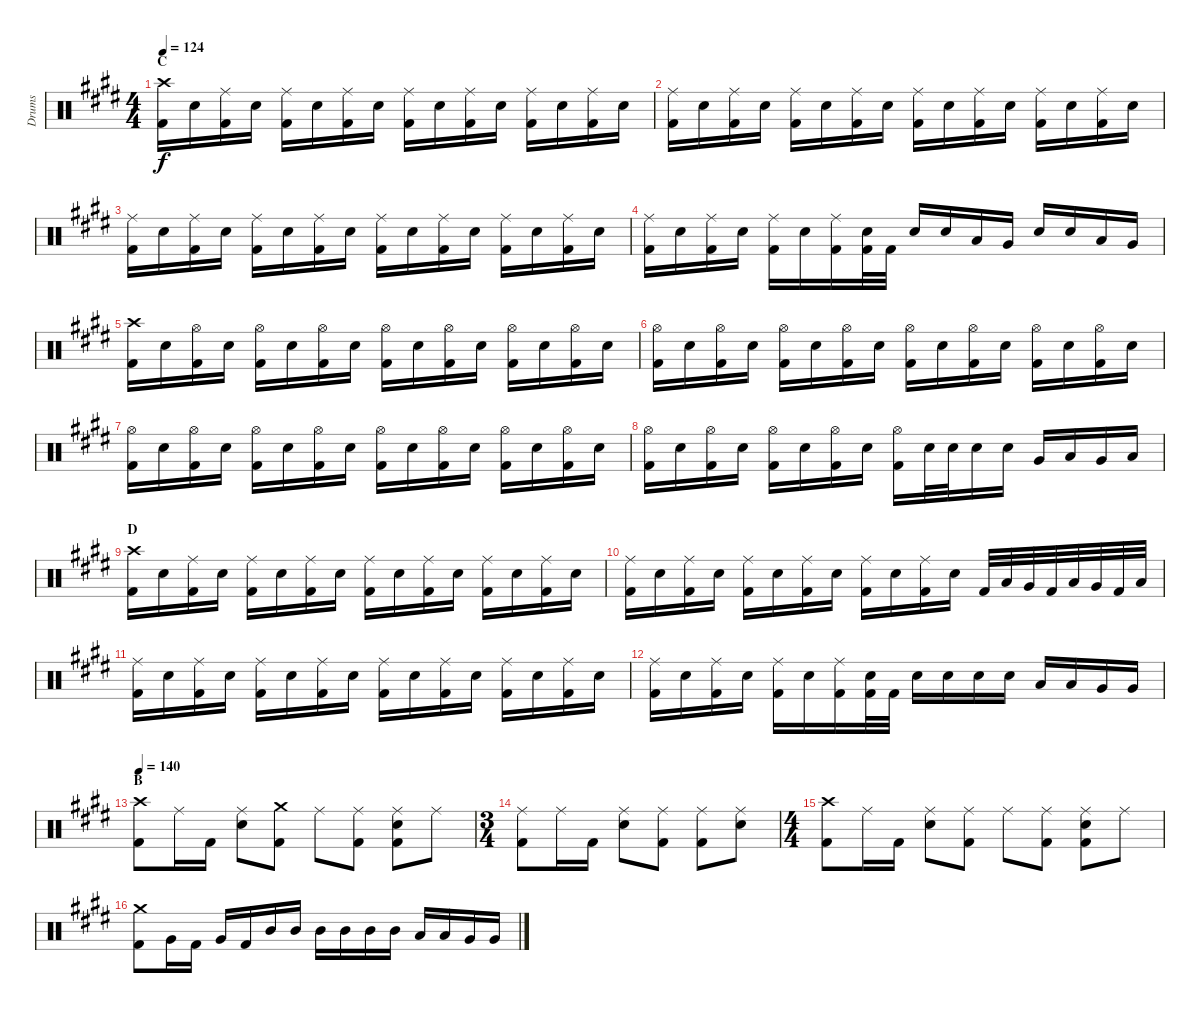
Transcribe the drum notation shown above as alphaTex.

\track ("Drums" "Drums") {instrument percussion}
\staff {score}
\articulation defaults
\ts (4 4)
\section ("" "C")
\tempo 124
\clef neutral
\ks e
("Crash high (hit)" "Kick (hit) 2").16{dy f} "Electric Snare (hit)".16 ("Ride (middle)" "Kick (hit) 2").16 "Electric Snare (hit)".16 ("Ride (middle)" "Kick (hit) 2").16 "Electric Snare (hit)".16 ("Ride (middle)" "Kick (hit) 2").16 "Electric Snare (hit)".16 ("Ride (middle)" "Kick (hit) 2").16 "Electric Snare (hit)".16 ("Ride (middle)" "Kick (hit) 2").16 "Electric Snare (hit)".16 ("Ride (middle)" "Kick (hit) 2").16 "Electric Snare (hit)".16 ("Ride (middle)" "Kick (hit) 2").16 "Electric Snare (hit)".16 |
("Ride (middle)" "Kick (hit) 2").16 "Electric Snare (hit)".16 ("Ride (middle)" "Kick (hit) 2").16 "Electric Snare (hit)".16 ("Ride (middle)" "Kick (hit) 2").16 "Electric Snare (hit)".16 ("Ride (middle)" "Kick (hit) 2").16 "Electric Snare (hit)".16 ("Ride (middle)" "Kick (hit) 2").16 "Electric Snare (hit)".16 ("Ride (middle)" "Kick (hit) 2").16 "Electric Snare (hit)".16 ("Ride (middle)" "Kick (hit) 2").16 "Electric Snare (hit)".16 ("Ride (middle)" "Kick (hit) 2").16 "Electric Snare (hit)".16 |
("Ride (middle)" "Kick (hit) 2").16 "Electric Snare (hit)".16 ("Ride (middle)" "Kick (hit) 2").16 "Electric Snare (hit)".16 ("Ride (middle)" "Kick (hit) 2").16 "Electric Snare (hit)".16 ("Ride (middle)" "Kick (hit) 2").16 "Electric Snare (hit)".16 ("Ride (middle)" "Kick (hit) 2").16 "Electric Snare (hit)".16 ("Ride (middle)" "Kick (hit) 2").16 "Electric Snare (hit)".16 ("Ride (middle)" "Kick (hit) 2").16 "Electric Snare (hit)".16 ("Ride (middle)" "Kick (hit) 2").16 "Electric Snare (hit)".16 |
("Ride (middle)" "Kick (hit) 2").16 "Electric Snare (hit)".16 ("Ride (middle)" "Kick (hit) 2").16 "Electric Snare (hit)".16 ("Ride (middle)" "Kick (hit) 2").16 "Electric Snare (hit)".16 ("Ride (middle)" "Kick (hit) 2").16 ("Electric Snare (hit)" "Kick (hit) 2").32 "Kick (hit) 2".32 "Electric Snare (hit)".16 "Electric Snare (hit)".16 "Low Tom (hit)".16 "Very Low Tom (hit)".16 "Electric Snare (hit)".16 "Electric Snare (hit)".16 "Low Tom (hit)".16 "Very Low Tom (hit)".16 |
("Crash high (hit)" "Kick (hit) 2").16 "Electric Snare (hit)".16 ("Hi-Hat (open)" "Kick (hit) 2").16 "Electric Snare (hit)".16 ("Hi-Hat (open)" "Kick (hit) 2").16 "Electric Snare (hit)".16 ("Hi-Hat (open)" "Kick (hit) 2").16 "Electric Snare (hit)".16 ("Hi-Hat (open)" "Kick (hit) 2").16 "Electric Snare (hit)".16 ("Hi-Hat (open)" "Kick (hit) 2").16 "Electric Snare (hit)".16 ("Hi-Hat (open)" "Kick (hit) 2").16 "Electric Snare (hit)".16 ("Hi-Hat (open)" "Kick (hit) 2").16 "Electric Snare (hit)".16 |
("Hi-Hat (open)" "Kick (hit) 2").16 "Electric Snare (hit)".16 ("Hi-Hat (open)" "Kick (hit) 2").16 "Electric Snare (hit)".16 ("Hi-Hat (open)" "Kick (hit) 2").16 "Electric Snare (hit)".16 ("Hi-Hat (open)" "Kick (hit) 2").16 "Electric Snare (hit)".16 ("Hi-Hat (open)" "Kick (hit) 2").16 "Electric Snare (hit)".16 ("Hi-Hat (open)" "Kick (hit) 2").16 "Electric Snare (hit)".16 ("Hi-Hat (open)" "Kick (hit) 2").16 "Electric Snare (hit)".16 ("Hi-Hat (open)" "Kick (hit) 2").16 "Electric Snare (hit)".16 |
("Hi-Hat (open)" "Kick (hit) 2").16 "Electric Snare (hit)".16 ("Hi-Hat (open)" "Kick (hit) 2").16 "Electric Snare (hit)".16 ("Hi-Hat (open)" "Kick (hit) 2").16 "Electric Snare (hit)".16 ("Hi-Hat (open)" "Kick (hit) 2").16 "Electric Snare (hit)".16 ("Hi-Hat (open)" "Kick (hit) 2").16 "Electric Snare (hit)".16 ("Hi-Hat (open)" "Kick (hit) 2").16 "Electric Snare (hit)".16 ("Hi-Hat (open)" "Kick (hit) 2").16 "Electric Snare (hit)".16 ("Hi-Hat (open)" "Kick (hit) 2").16 "Electric Snare (hit)".16 |
("Hi-Hat (open)" "Kick (hit) 2").16 "Electric Snare (hit)".16 ("Hi-Hat (open)" "Kick (hit) 2").16 "Electric Snare (hit)".16 ("Hi-Hat (open)" "Kick (hit) 2").16 "Electric Snare (hit)".16 ("Hi-Hat (open)" "Kick (hit) 2").16 "Electric Snare (hit)".16 ("Hi-Hat (open)" "Kick (hit) 2").16 "Electric Snare (hit)".32 "Electric Snare (hit)".32 "Electric Snare (hit)".16 "Electric Snare (hit)".16 "Very Low Tom (hit)".16 "Low Tom (hit)".16 "Very Low Tom (hit)".16 "Low Tom (hit)".16 |
\section ("" "D")
("Crash high (hit)" "Kick (hit) 2").16 "Electric Snare (hit)".16 ("Ride (middle)" "Kick (hit) 2").16 "Electric Snare (hit)".16 ("Ride (middle)" "Kick (hit) 2").16 "Electric Snare (hit)".16 ("Ride (middle)" "Kick (hit) 2").16 "Electric Snare (hit)".16 ("Ride (middle)" "Kick (hit) 2").16 "Electric Snare (hit)".16 ("Ride (middle)" "Kick (hit) 2").16 "Electric Snare (hit)".16 ("Ride (middle)" "Kick (hit) 2").16 "Electric Snare (hit)".16 ("Ride (middle)" "Kick (hit) 2").16 "Electric Snare (hit)".16 |
("Ride (middle)" "Kick (hit) 2").16 "Electric Snare (hit)".16 ("Ride (middle)" "Kick (hit) 2").16 "Electric Snare (hit)".16 ("Ride (middle)" "Kick (hit) 2").16 "Electric Snare (hit)".16 ("Ride (middle)" "Kick (hit) 2").16 "Electric Snare (hit)".16 ("Ride (middle)" "Kick (hit) 2").16 "Electric Snare (hit)".16 ("Ride (middle)" "Kick (hit) 2").16 "Electric Snare (hit)".16 "Kick (hit) 2".32 "Low Tom (hit)".32 "Very Low Tom (hit)".32 "Kick (hit) 2".32 "Low Tom (hit)".32 "Very Low Tom (hit)".32 "Kick (hit) 2".32 "Low Tom (hit)".32 |
("Ride (middle)" "Kick (hit) 2").16 "Electric Snare (hit)".16 ("Ride (middle)" "Kick (hit) 2").16 "Electric Snare (hit)".16 ("Ride (middle)" "Kick (hit) 2").16 "Electric Snare (hit)".16 ("Ride (middle)" "Kick (hit) 2").16 "Electric Snare (hit)".16 ("Ride (middle)" "Kick (hit) 2").16 "Electric Snare (hit)".16 ("Ride (middle)" "Kick (hit) 2").16 "Electric Snare (hit)".16 ("Ride (middle)" "Kick (hit) 2").16 "Electric Snare (hit)".16 ("Ride (middle)" "Kick (hit) 2").16 "Electric Snare (hit)".16 |
("Ride (middle)" "Kick (hit) 2").16 "Electric Snare (hit)".16 ("Ride (middle)" "Kick (hit) 2").16 "Electric Snare (hit)".16 ("Ride (middle)" "Kick (hit) 2").16 "Electric Snare (hit)".16 ("Ride (middle)" "Kick (hit) 2").16 ("Electric Snare (hit)" "Kick (hit) 2").32 "Kick (hit) 2".32 "Electric Snare (hit)".16 "Electric Snare (hit)".16 "Electric Snare (hit)".16 "Electric Snare (hit)".16 "Low Tom (hit)".16 "Low Tom (hit)".16 "Very Low Tom (hit)".16 "Very Low Tom (hit)".16 |
\section ("" "B")
\tempo 140
("Crash high (hit)" "Kick (hit) 2").8 "Ride (middle)".16 "Kick (hit) 2".16 ("Ride (middle)" "Electric Snare (hit)").8 ("Crash medium (hit)" "Kick (hit) 2").8 "Ride (middle)".8 ("Ride (middle)" "Kick (hit) 2").8 ("Ride (middle)" "Electric Snare (hit)" "Kick (hit) 2").8 "Ride (middle)".8 |
\ts (3 4)
("Ride (middle)" "Kick (hit) 2").8 "Ride (middle)".16 "Kick (hit) 2".16 ("Ride (middle)" "Electric Snare (hit)").8 ("Ride (middle)" "Kick (hit) 2").8 ("Ride (middle)" "Kick (hit) 2").8 ("Ride (middle)" "Electric Snare (hit)").8 |
\ts (4 4)
("Crash high (hit)" "Kick (hit) 2").8 "Ride (middle)".16 "Kick (hit) 2".16 ("Ride (middle)" "Electric Snare (hit)").8 ("Ride (middle)" "Kick (hit) 2").8 "Ride (middle)".8 ("Ride (middle)" "Kick (hit) 2").8 ("Ride (middle)" "Electric Snare (hit)" "Kick (hit) 2").8 "Ride (middle)".8 |
("Crash medium (hit)" "Kick (hit) 2").8 "Very Low Tom (hit)".16 "Kick (hit) 2".16 "Very Low Tom (hit)".16 "Kick (hit) 2".16 "Mid Tom (hit)".16 "Mid Tom (hit)".16 "Mid Tom (hit)".16 "Mid Tom (hit)".16 "Mid Tom (hit)".16 "Mid Tom (hit)".16 "Low Tom (hit)".16 "Low Tom (hit)".16 "Very Low Tom (hit)".16 "Very Low Tom (hit)".16
